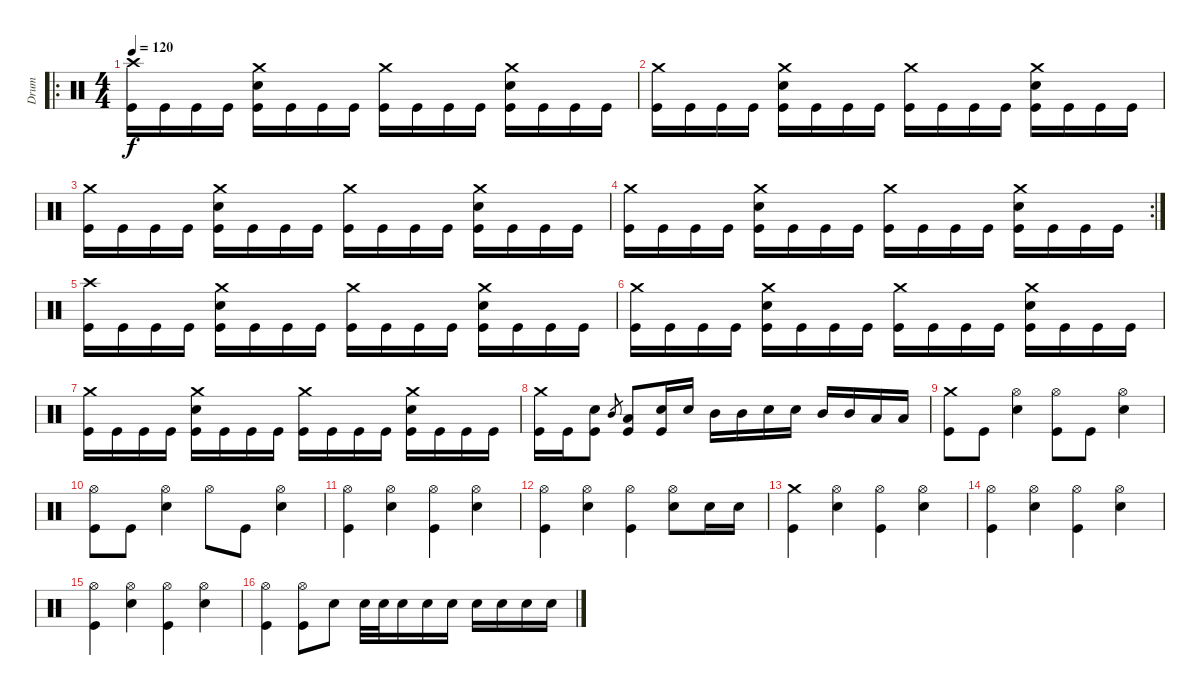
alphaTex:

\track ("Drum" "Drum") {instrument percussion}
\staff {score}
\articulation defaults
\ro
\ts (4 4)
\tempo 120
\clef neutral
\ks c
("Kick (hit)" "Crash high (hit)").16{dy f} "Kick (hit)".16 "Kick (hit)".16 "Kick (hit)".16 ("Kick (hit)" "Electric Snare (hit)" "Crash medium (hit)").16 "Kick (hit)".16 "Kick (hit)".16 "Kick (hit)".16 ("Kick (hit)" "Crash medium (hit)").16 "Kick (hit)".16 "Kick (hit)".16 "Kick (hit)".16 ("Kick (hit)" "Electric Snare (hit)" "Crash medium (hit)").16 "Kick (hit)".16 "Kick (hit)".16 "Kick (hit)".16 |
("Kick (hit)" "Crash medium (hit)").16 "Kick (hit)".16 "Kick (hit)".16 "Kick (hit)".16 ("Kick (hit)" "Electric Snare (hit)" "Crash medium (hit)").16 "Kick (hit)".16 "Kick (hit)".16 "Kick (hit)".16 ("Kick (hit)" "Crash medium (hit)").16 "Kick (hit)".16 "Kick (hit)".16 "Kick (hit)".16 ("Kick (hit)" "Electric Snare (hit)" "Crash medium (hit)").16 "Kick (hit)".16 "Kick (hit)".16 "Kick (hit)".16 |
("Kick (hit)" "Crash medium (hit)").16 "Kick (hit)".16 "Kick (hit)".16 "Kick (hit)".16 ("Kick (hit)" "Electric Snare (hit)" "Crash medium (hit)").16 "Kick (hit)".16 "Kick (hit)".16 "Kick (hit)".16 ("Kick (hit)" "Crash medium (hit)").16 "Kick (hit)".16 "Kick (hit)".16 "Kick (hit)".16 ("Kick (hit)" "Electric Snare (hit)" "Crash medium (hit)").16 "Kick (hit)".16 "Kick (hit)".16 "Kick (hit)".16 |
\rc 2
("Kick (hit)" "Crash medium (hit)").16 "Kick (hit)".16 "Kick (hit)".16 "Kick (hit)".16 ("Kick (hit)" "Electric Snare (hit)" "Crash medium (hit)").16 "Kick (hit)".16 "Kick (hit)".16 "Kick (hit)".16 ("Kick (hit)" "Crash medium (hit)").16 "Kick (hit)".16 "Kick (hit)".16 "Kick (hit)".16 ("Kick (hit)" "Electric Snare (hit)" "Crash medium (hit)").16 "Kick (hit)".16 "Kick (hit)".16 "Kick (hit)".16 |
("Kick (hit)" "Crash high (hit)").16 "Kick (hit)".16 "Kick (hit)".16 "Kick (hit)".16 ("Kick (hit)" "Electric Snare (hit)" "Crash medium (hit)").16 "Kick (hit)".16 "Kick (hit)".16 "Kick (hit)".16 ("Kick (hit)" "Crash medium (hit)").16 "Kick (hit)".16 "Kick (hit)".16 "Kick (hit)".16 ("Kick (hit)" "Electric Snare (hit)" "Crash medium (hit)").16 "Kick (hit)".16 "Kick (hit)".16 "Kick (hit)".16 |
("Kick (hit)" "Crash medium (hit)").16 "Kick (hit)".16 "Kick (hit)".16 "Kick (hit)".16 ("Kick (hit)" "Electric Snare (hit)" "Crash medium (hit)").16 "Kick (hit)".16 "Kick (hit)".16 "Kick (hit)".16 ("Kick (hit)" "Crash medium (hit)").16 "Kick (hit)".16 "Kick (hit)".16 "Kick (hit)".16 ("Kick (hit)" "Electric Snare (hit)" "Crash medium (hit)").16 "Kick (hit)".16 "Kick (hit)".16 "Kick (hit)".16 |
("Kick (hit)" "Crash medium (hit)").16 "Kick (hit)".16 "Kick (hit)".16 "Kick (hit)".16 ("Kick (hit)" "Electric Snare (hit)" "Crash medium (hit)").16 "Kick (hit)".16 "Kick (hit)".16 "Kick (hit)".16 ("Kick (hit)" "Crash medium (hit)").16 "Kick (hit)".16 "Kick (hit)".16 "Kick (hit)".16 ("Kick (hit)" "Electric Snare (hit)" "Crash medium (hit)").16 "Kick (hit)".16 "Kick (hit)".16 "Kick (hit)".16 |
("Kick (hit)" "Crash medium (hit)").16 "Kick (hit)".16 ("Kick (hit)" "Electric Snare (hit)").8 "Mid Tom (hit)".8{gr} ("Kick (hit)" "Low Tom (hit)").8 ("Kick (hit)" "Electric Snare (hit)").16 "Electric Snare (hit)".16 "Mid Tom (hit)".16 "Mid Tom (hit)".16 "Electric Snare (hit)".16 "Electric Snare (hit)".16 "Mid Tom (hit)".16 "Mid Tom (hit)".16 "Low Tom (hit)".16 "Low Tom (hit)".16 |
("Kick (hit)" "Crash medium (hit)").8 "Kick (hit)".8 ("Electric Snare (hit)" "Hi-Hat (open)").4 ("Kick (hit)" "Hi-Hat (open)").8 "Kick (hit)".8 ("Electric Snare (hit)" "Hi-Hat (open)").4 |
("Kick (hit)" "Hi-Hat (open)").8 "Kick (hit)".8 ("Electric Snare (hit)" "Hi-Hat (open)").4 "Hi-Hat (open)".8 "Kick (hit)".8 ("Electric Snare (hit)" "Hi-Hat (open)").4 |
("Kick (hit)" "Hi-Hat (open)").4 ("Electric Snare (hit)" "Hi-Hat (open)").4 ("Kick (hit)" "Hi-Hat (open)").4 ("Electric Snare (hit)" "Hi-Hat (open)").4 |
("Kick (hit)" "Hi-Hat (open)").4 ("Electric Snare (hit)" "Hi-Hat (open)").4 ("Kick (hit)" "Hi-Hat (open)").4 ("Electric Snare (hit)" "Hi-Hat (open)").8 "Electric Snare (hit)".16 "Electric Snare (hit)".16 |
("Kick (hit)" "Crash medium (hit)").4 ("Electric Snare (hit)" "Hi-Hat (open)").4 ("Kick (hit)" "Hi-Hat (open)").4 ("Electric Snare (hit)" "Hi-Hat (open)").4 |
("Kick (hit)" "Hi-Hat (open)").4 ("Electric Snare (hit)" "Hi-Hat (open)").4 ("Kick (hit)" "Hi-Hat (open)").4 ("Electric Snare (hit)" "Hi-Hat (open)").4 |
("Kick (hit)" "Hi-Hat (open)").4 ("Electric Snare (hit)" "Hi-Hat (open)").4 ("Kick (hit)" "Hi-Hat (open)").4 ("Electric Snare (hit)" "Hi-Hat (open)").4 |
("Kick (hit)" "Hi-Hat (open)").4 ("Kick (hit)" "Hi-Hat (open)").8 "Electric Snare (hit)".8 "Electric Snare (hit)".32 "Electric Snare (hit)".32 "Electric Snare (hit)".16 "Electric Snare (hit)".16 "Electric Snare (hit)".16 "Electric Snare (hit)".16 "Electric Snare (hit)".16 "Electric Snare (hit)".16 "Electric Snare (hit)".16
